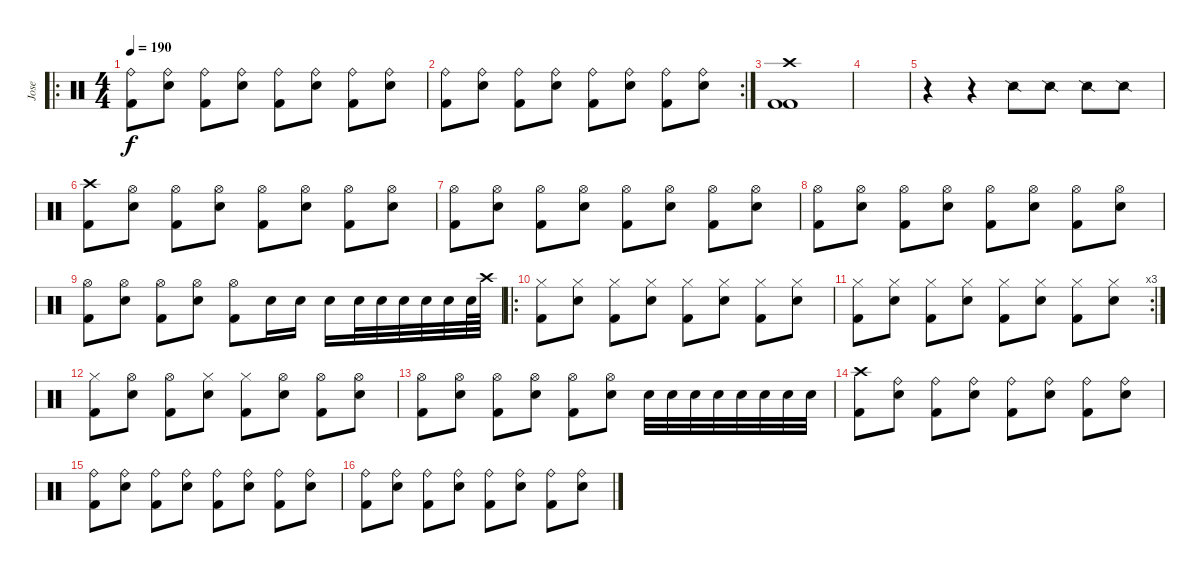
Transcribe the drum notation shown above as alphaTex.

\track ("Jose" "Jose") {instrument percussion}
\staff {score}
\articulation defaults
\ro
\ts (4 4)
\tempo 190
\clef neutral
\ks c
("Ride (bell)" "Kick (hit) 2").8{dy f} ("Ride (bell)" "Electric Snare (hit)").8 ("Ride (bell)" "Kick (hit) 2").8 ("Ride (bell)" "Electric Snare (hit)").8 ("Ride (bell)" "Kick (hit) 2").8 ("Ride (bell)" "Electric Snare (hit)").8 ("Ride (bell)" "Kick (hit) 2").8 ("Ride (bell)" "Electric Snare (hit)").8 |
\rc 2
("Ride (bell)" "Kick (hit) 2").8 ("Ride (bell)" "Electric Snare (hit)").8 ("Ride (bell)" "Kick (hit) 2").8 ("Ride (bell)" "Electric Snare (hit)").8 ("Ride (bell)" "Kick (hit) 2").8 ("Ride (bell)" "Electric Snare (hit)").8 ("Ride (bell)" "Kick (hit) 2").8 ("Ride (bell)" "Electric Snare (hit)").8 |
("Crash high (hit)" "Kick (hit) 2" "Kick (hit) 2").1 |
|
r.4 r.4 "Snare (side stick) 2".8 "Snare (side stick) 2".8 "Snare (side stick) 2".8 "Snare (side stick) 2".8 |
("Crash high (hit)" "Kick (hit) 2").8 ("Hi-Hat (open)" "Electric Snare (hit)").8 ("Hi-Hat (open)" "Kick (hit) 2").8 ("Hi-Hat (open)" "Electric Snare (hit)").8 ("Hi-Hat (open)" "Kick (hit) 2").8 ("Hi-Hat (open)" "Electric Snare (hit)").8 ("Hi-Hat (open)" "Kick (hit) 2").8 ("Hi-Hat (open)" "Electric Snare (hit)").8 |
("Hi-Hat (open)" "Kick (hit) 2").8 ("Hi-Hat (open)" "Electric Snare (hit)").8 ("Hi-Hat (open)" "Kick (hit) 2").8 ("Hi-Hat (open)" "Electric Snare (hit)").8 ("Hi-Hat (open)" "Kick (hit) 2").8 ("Hi-Hat (open)" "Electric Snare (hit)").8 ("Hi-Hat (open)" "Kick (hit) 2").8 ("Hi-Hat (open)" "Electric Snare (hit)").8 |
("Hi-Hat (open)" "Kick (hit) 2").8 ("Hi-Hat (open)" "Electric Snare (hit)").8 ("Hi-Hat (open)" "Kick (hit) 2").8 ("Hi-Hat (open)" "Electric Snare (hit)").8 ("Hi-Hat (open)" "Kick (hit) 2").8 ("Hi-Hat (open)" "Electric Snare (hit)").8 ("Hi-Hat (open)" "Kick (hit) 2").8 ("Hi-Hat (open)" "Electric Snare (hit)").8 |
("Hi-Hat (open)" "Kick (hit) 2").8 ("Hi-Hat (open)" "Electric Snare (hit)").8 ("Hi-Hat (open)" "Kick (hit) 2").8 ("Hi-Hat (open)" "Electric Snare (hit)").8 ("Hi-Hat (open)" "Kick (hit) 2").8 "Electric Snare (hit)".16 "Electric Snare (hit)".16 "Electric Snare (hit)".16 "Electric Snare (hit)".32 "Electric Snare (hit)".32 "Electric Snare (hit)".32 "Electric Snare (hit)".32 "Electric Snare (hit)".32 "Electric Snare (hit)".64 "Crash high (hit)".64 |
\ro
("Hi-Hat (closed)" "Kick (hit) 2").8 ("Hi-Hat (closed)" "Electric Snare (hit)").8 ("Hi-Hat (closed)" "Kick (hit) 2").8 ("Hi-Hat (closed)" "Electric Snare (hit)").8 ("Hi-Hat (closed)" "Kick (hit) 2").8 ("Hi-Hat (closed)" "Electric Snare (hit)").8 ("Hi-Hat (closed)" "Kick (hit) 2").8 ("Hi-Hat (closed)" "Electric Snare (hit)").8 |
\rc 3
("Hi-Hat (closed)" "Kick (hit) 2").8 ("Hi-Hat (closed)" "Electric Snare (hit)").8 ("Hi-Hat (closed)" "Kick (hit) 2").8 ("Hi-Hat (closed)" "Electric Snare (hit)").8 ("Hi-Hat (closed)" "Kick (hit) 2").8 ("Hi-Hat (closed)" "Electric Snare (hit)").8 ("Hi-Hat (closed)" "Kick (hit) 2").8 ("Hi-Hat (closed)" "Electric Snare (hit)").8 |
("Hi-Hat (closed)" "Kick (hit) 2").8 ("Hi-Hat (open)" "Electric Snare (hit)").8 ("Hi-Hat (open)" "Kick (hit) 2").8 ("Hi-Hat (closed)" "Electric Snare (hit)").8 ("Hi-Hat (closed)" "Kick (hit) 2").8 ("Hi-Hat (open)" "Electric Snare (hit)").8 ("Hi-Hat (open)" "Kick (hit) 2").8 ("Hi-Hat (open)" "Electric Snare (hit)").8 |
("Hi-Hat (open)" "Kick (hit) 2").8 ("Hi-Hat (open)" "Electric Snare (hit)").8 ("Hi-Hat (open)" "Kick (hit) 2").8 ("Hi-Hat (open)" "Electric Snare (hit)").8 ("Hi-Hat (open)" "Kick (hit) 2").8 ("Hi-Hat (open)" "Electric Snare (hit)").8 "Electric Snare (hit)".32 "Electric Snare (hit)".32 "Electric Snare (hit)".32 "Electric Snare (hit)".32 "Electric Snare (hit)".32 "Electric Snare (hit)".32 "Electric Snare (hit)".32 "Electric Snare (hit)".32 |
("Crash high (hit)" "Kick (hit) 2").8 ("Ride (bell)" "Electric Snare (hit)").8 ("Ride (bell)" "Kick (hit) 2").8 ("Ride (bell)" "Electric Snare (hit)").8 ("Ride (bell)" "Kick (hit) 2").8 ("Ride (bell)" "Electric Snare (hit)").8 ("Ride (bell)" "Kick (hit) 2").8 ("Ride (bell)" "Electric Snare (hit)").8 |
("Ride (bell)" "Kick (hit) 2").8 ("Ride (bell)" "Electric Snare (hit)").8 ("Ride (bell)" "Kick (hit) 2").8 ("Ride (bell)" "Electric Snare (hit)").8 ("Ride (bell)" "Kick (hit) 2").8 ("Ride (bell)" "Electric Snare (hit)").8 ("Ride (bell)" "Kick (hit) 2").8 ("Ride (bell)" "Electric Snare (hit)").8 |
("Ride (bell)" "Kick (hit) 2").8 ("Ride (bell)" "Electric Snare (hit)").8 ("Ride (bell)" "Kick (hit) 2").8 ("Ride (bell)" "Electric Snare (hit)").8 ("Ride (bell)" "Kick (hit) 2").8 ("Ride (bell)" "Electric Snare (hit)").8 ("Ride (bell)" "Kick (hit) 2").8 ("Ride (bell)" "Electric Snare (hit)").8
